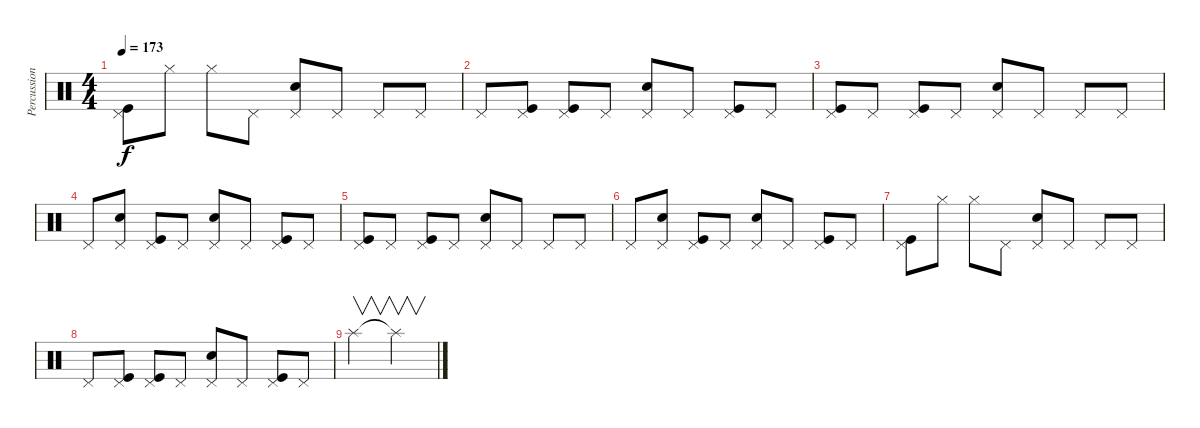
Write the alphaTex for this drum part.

\track ("Percussion" "Percussion") {instrument percussion}
\staff {score}
\articulation defaults
\ts (4 4)
\tempo 173
\clef neutral
\ks c
("Kick (hit)" "Pedal Hi-Hat (hit)").8{dy f} "Hi-Hat (closed)".8 "Hi-Hat (closed)".8 "Pedal Hi-Hat (hit)".8 ("Snare (hit) 2" "Pedal Hi-Hat (hit)").8 "Pedal Hi-Hat (hit)".8 "Pedal Hi-Hat (hit)".8 "Pedal Hi-Hat (hit)".8 |
"Pedal Hi-Hat (hit)".8 ("Kick (hit)" "Pedal Hi-Hat (hit)").8 ("Kick (hit)" "Pedal Hi-Hat (hit)").8 "Pedal Hi-Hat (hit)".8 ("Snare (hit) 2" "Pedal Hi-Hat (hit)").8 "Pedal Hi-Hat (hit)".8 ("Kick (hit)" "Pedal Hi-Hat (hit)").8 "Pedal Hi-Hat (hit)".8 |
("Kick (hit)" "Pedal Hi-Hat (hit)").8 "Pedal Hi-Hat (hit)".8 ("Kick (hit)" "Pedal Hi-Hat (hit)").8 "Pedal Hi-Hat (hit)".8 ("Snare (hit) 2" "Pedal Hi-Hat (hit)").8 "Pedal Hi-Hat (hit)".8 "Pedal Hi-Hat (hit)".8 "Pedal Hi-Hat (hit)".8 |
"Pedal Hi-Hat (hit)".8 ("Snare (hit) 2" "Pedal Hi-Hat (hit)").8 ("Kick (hit)" "Pedal Hi-Hat (hit)").8 "Pedal Hi-Hat (hit)".8 ("Snare (hit) 2" "Pedal Hi-Hat (hit)").8 "Pedal Hi-Hat (hit)".8 ("Kick (hit)" "Pedal Hi-Hat (hit)").8 "Pedal Hi-Hat (hit)".8 |
("Kick (hit)" "Pedal Hi-Hat (hit)").8 "Pedal Hi-Hat (hit)".8 ("Kick (hit)" "Pedal Hi-Hat (hit)").8 "Pedal Hi-Hat (hit)".8 ("Snare (hit) 2" "Pedal Hi-Hat (hit)").8 "Pedal Hi-Hat (hit)".8 "Pedal Hi-Hat (hit)".8 "Pedal Hi-Hat (hit)".8 |
"Pedal Hi-Hat (hit)".8 ("Snare (hit) 2" "Pedal Hi-Hat (hit)").8 ("Kick (hit)" "Pedal Hi-Hat (hit)").8 "Pedal Hi-Hat (hit)".8 ("Snare (hit) 2" "Pedal Hi-Hat (hit)").8 "Pedal Hi-Hat (hit)".8 ("Kick (hit)" "Pedal Hi-Hat (hit)").8 "Pedal Hi-Hat (hit)".8 |
("Kick (hit)" "Pedal Hi-Hat (hit)").8 "Hi-Hat (closed)".8 "Hi-Hat (closed)".8 "Pedal Hi-Hat (hit)".8 ("Snare (hit) 2" "Pedal Hi-Hat (hit)").8 "Pedal Hi-Hat (hit)".8 "Pedal Hi-Hat (hit)".8 "Pedal Hi-Hat (hit)".8 |
"Pedal Hi-Hat (hit)".8 ("Kick (hit)" "Pedal Hi-Hat (hit)").8 ("Kick (hit)" "Pedal Hi-Hat (hit)").8 "Pedal Hi-Hat (hit)".8 ("Snare (hit) 2" "Pedal Hi-Hat (hit)").8 "Pedal Hi-Hat (hit)".8 ("Kick (hit)" "Pedal Hi-Hat (hit)").8 "Pedal Hi-Hat (hit)".8 |
"Splash (hit)".2{v} "Splash (hit)"{t}.2{v}
